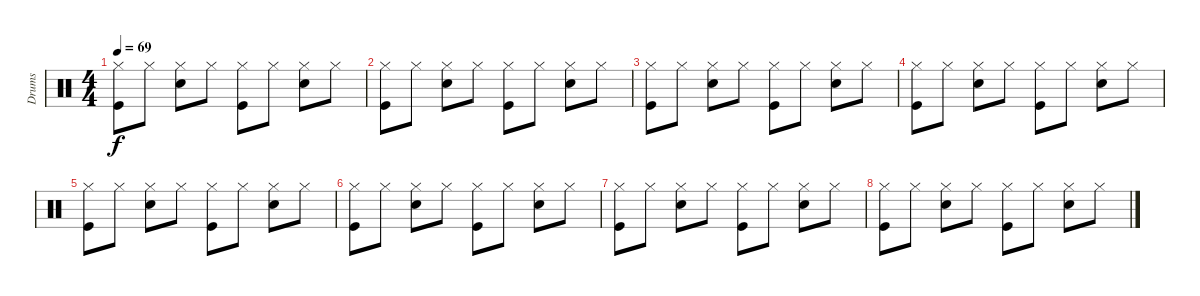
\track ("Drums" "Drums") {instrument percussion}
\staff {score}
\articulation defaults
\ts (4 4)
\tempo 69
\clef neutral
\ks c
("Hi-Hat (closed)" "Kick (hit)").8{dy f} "Hi-Hat (closed)".8 ("Hi-Hat (closed)" "Snare (hit) 2").8 "Hi-Hat (closed)".8 ("Hi-Hat (closed)" "Kick (hit)").8 "Hi-Hat (closed)".8 ("Hi-Hat (closed)" "Snare (hit) 2").8 "Hi-Hat (closed)".8 |
("Hi-Hat (closed)" "Kick (hit)").8 "Hi-Hat (closed)".8 ("Hi-Hat (closed)" "Snare (hit) 2").8 "Hi-Hat (closed)".8 ("Hi-Hat (closed)" "Kick (hit)").8 "Hi-Hat (closed)".8 ("Hi-Hat (closed)" "Snare (hit) 2").8 "Hi-Hat (closed)".8 |
("Hi-Hat (closed)" "Kick (hit)").8 "Hi-Hat (closed)".8 ("Hi-Hat (closed)" "Snare (hit) 2").8 "Hi-Hat (closed)".8 ("Hi-Hat (closed)" "Kick (hit)").8 "Hi-Hat (closed)".8 ("Hi-Hat (closed)" "Snare (hit) 2").8 "Hi-Hat (closed)".8 |
("Hi-Hat (closed)" "Kick (hit)").8 "Hi-Hat (closed)".8 ("Hi-Hat (closed)" "Snare (hit) 2").8 "Hi-Hat (closed)".8 ("Hi-Hat (closed)" "Kick (hit)").8 "Hi-Hat (closed)".8 ("Hi-Hat (closed)" "Snare (hit) 2").8 "Hi-Hat (closed)".8 |
("Hi-Hat (closed)" "Kick (hit)").8 "Hi-Hat (closed)".8 ("Hi-Hat (closed)" "Snare (hit) 2").8 "Hi-Hat (closed)".8 ("Hi-Hat (closed)" "Kick (hit)").8 "Hi-Hat (closed)".8 ("Hi-Hat (closed)" "Snare (hit) 2").8 "Hi-Hat (closed)".8 |
("Hi-Hat (closed)" "Kick (hit)").8 "Hi-Hat (closed)".8 ("Hi-Hat (closed)" "Snare (hit) 2").8 "Hi-Hat (closed)".8 ("Hi-Hat (closed)" "Kick (hit)").8 "Hi-Hat (closed)".8 ("Hi-Hat (closed)" "Snare (hit) 2").8 "Hi-Hat (closed)".8 |
("Hi-Hat (closed)" "Kick (hit)").8 "Hi-Hat (closed)".8 ("Hi-Hat (closed)" "Snare (hit) 2").8 "Hi-Hat (closed)".8 ("Hi-Hat (closed)" "Kick (hit)").8 "Hi-Hat (closed)".8 ("Hi-Hat (closed)" "Snare (hit) 2").8 "Hi-Hat (closed)".8 |
("Hi-Hat (closed)" "Kick (hit)").8 "Hi-Hat (closed)".8 ("Hi-Hat (closed)" "Snare (hit) 2").8 "Hi-Hat (closed)".8 ("Hi-Hat (closed)" "Kick (hit)").8 "Hi-Hat (closed)".8 ("Hi-Hat (closed)" "Snare (hit) 2").8 "Hi-Hat (closed)".8
